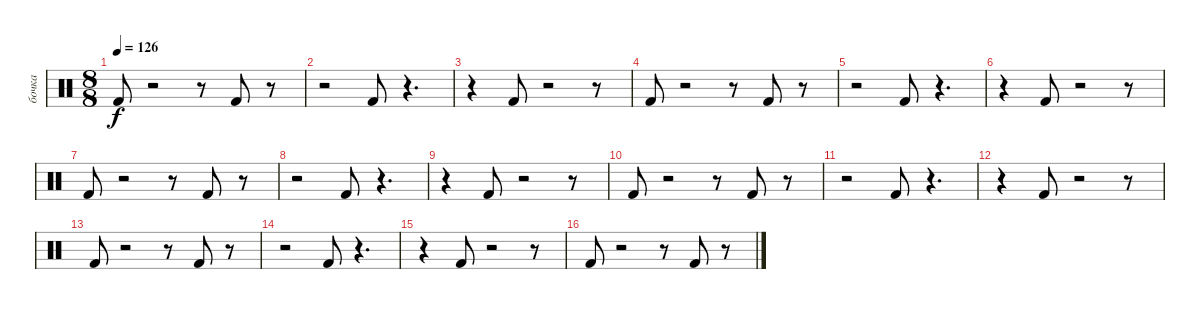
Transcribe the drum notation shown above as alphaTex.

\track ("бочка" "бочка") {instrument percussion}
\staff {score}
\articulation defaults
\ts (8 8)
\tempo 126
\clef neutral
\ks c "Kick (hit) 2".8{dy f}
r.2 r.8 "Kick (hit) 2".8 r.8 |
r.2 "Kick (hit) 2".8 r.4{d} |
r.4 "Kick (hit) 2".8 r.2 r.8 |
"Kick (hit) 2".8 r.2 r.8 "Kick (hit) 2".8 r.8 |
r.2 "Kick (hit) 2".8 r.4{d} |
r.4 "Kick (hit) 2".8 r.2 r.8 |
"Kick (hit) 2".8 r.2 r.8 "Kick (hit) 2".8 r.8 |
r.2 "Kick (hit) 2".8 r.4{d} |
r.4 "Kick (hit) 2".8 r.2 r.8 |
"Kick (hit) 2".8 r.2 r.8 "Kick (hit) 2".8 r.8 |
r.2 "Kick (hit) 2".8 r.4{d} |
r.4 "Kick (hit) 2".8 r.2 r.8 |
"Kick (hit) 2".8 r.2 r.8 "Kick (hit) 2".8 r.8 |
r.2 "Kick (hit) 2".8 r.4{d} |
r.4 "Kick (hit) 2".8 r.2 r.8 |
"Kick (hit) 2".8 r.2 r.8 "Kick (hit) 2".8 r.8
